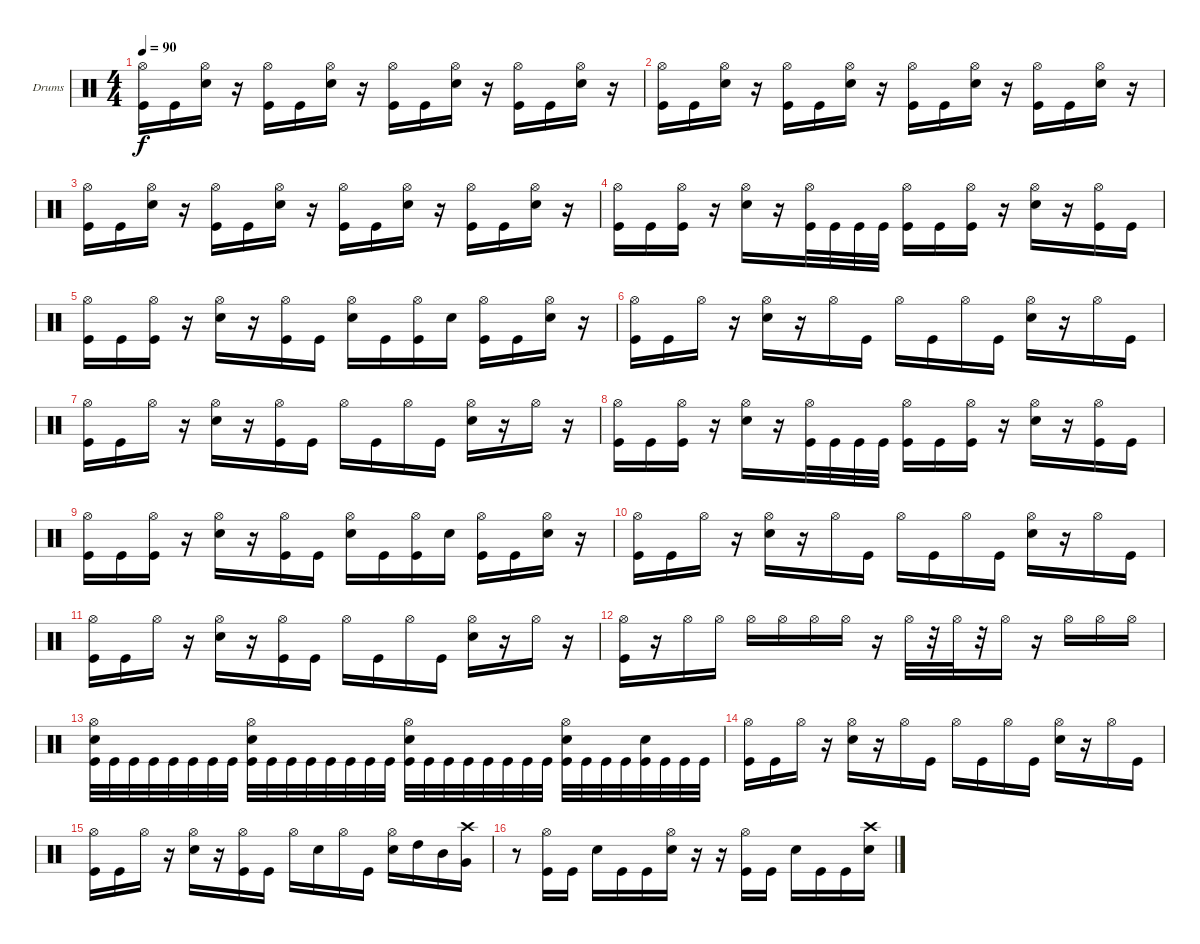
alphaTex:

\bracketExtendMode groupsimilarinstruments
\firstSystemTrackNameOrientation horizontal
\otherSystemsTrackNameOrientation horizontal
\track ("Drumkit" "Drums") {instrument percussion}
\staff {score}
\articulation defaults
\ts (4 4)
\tempo 90
\clef neutral
\ks c
("Hi-Hat (open)" "Kick (hit)").16{dy f} "Kick (hit)".16 ("Hi-Hat (open)" "Snare (hit) 2").16 r.16 ("Hi-Hat (open)" "Kick (hit)").16 "Kick (hit)".16 ("Hi-Hat (open)" "Snare (hit) 2").16 r.16 ("Hi-Hat (open)" "Kick (hit)").16 "Kick (hit)".16 ("Hi-Hat (open)" "Snare (hit) 2").16 r.16 ("Hi-Hat (open)" "Kick (hit)").16 "Kick (hit)".16 ("Hi-Hat (open)" "Snare (hit) 2").16 r.16 |
("Hi-Hat (open)" "Kick (hit)").16 "Kick (hit)".16 ("Hi-Hat (open)" "Snare (hit) 2").16 r.16 ("Hi-Hat (open)" "Kick (hit)").16 "Kick (hit)".16 ("Hi-Hat (open)" "Snare (hit) 2").16 r.16 ("Hi-Hat (open)" "Kick (hit)").16 "Kick (hit)".16 ("Hi-Hat (open)" "Snare (hit) 2").16 r.16 ("Hi-Hat (open)" "Kick (hit)").16 "Kick (hit)".16 ("Hi-Hat (open)" "Snare (hit) 2").16 r.16 |
("Hi-Hat (open)" "Kick (hit)").16 "Kick (hit)".16 ("Hi-Hat (open)" "Snare (hit) 2").16 r.16 ("Hi-Hat (open)" "Kick (hit)").16 "Kick (hit)".16 ("Hi-Hat (open)" "Snare (hit) 2").16 r.16 ("Hi-Hat (open)" "Kick (hit)").16 "Kick (hit)".16 ("Hi-Hat (open)" "Snare (hit) 2").16 r.16 ("Hi-Hat (open)" "Kick (hit)").16 "Kick (hit)".16 ("Hi-Hat (open)" "Snare (hit) 2").16 r.16 |
("Hi-Hat (open)" "Kick (hit)").16 "Kick (hit)".16 ("Hi-Hat (open)" "Kick (hit)").16 r.16 ("Hi-Hat (open)" "Snare (hit) 2").16 r.16 ("Hi-Hat (open)" "Kick (hit)").32 "Kick (hit)".32 "Kick (hit)".32 "Kick (hit)".32 ("Hi-Hat (open)" "Kick (hit)").16 "Kick (hit)".16 ("Hi-Hat (open)" "Kick (hit)").16 r.16 ("Hi-Hat (open)" "Snare (hit) 2").16 r.16 ("Hi-Hat (open)" "Kick (hit)").16 "Kick (hit)".16 |
("Hi-Hat (open)" "Kick (hit)").16 "Kick (hit)".16 ("Hi-Hat (open)" "Kick (hit)").16 r.16 ("Hi-Hat (open)" "Snare (hit) 2").16 r.16 ("Hi-Hat (open)" "Kick (hit)").16 "Kick (hit)".16 ("Hi-Hat (open)" "Snare (hit) 2").16 "Kick (hit)".16 ("Hi-Hat (open)" "Kick (hit)").16 "Snare (hit) 2".16 ("Hi-Hat (open)" "Kick (hit)").16 "Kick (hit)".16 ("Hi-Hat (open)" "Snare (hit) 2").16 r.16 |
("Hi-Hat (open)" "Kick (hit)").16 "Kick (hit)".16 "Hi-Hat (open)".16 r.16 ("Hi-Hat (open)" "Snare (hit) 2").16 r.16 "Hi-Hat (open)".16 "Kick (hit)".16 "Hi-Hat (open)".16 "Kick (hit)".16 "Hi-Hat (open)".16 "Kick (hit)".16 ("Hi-Hat (open)" "Snare (hit) 2").16 r.16 "Hi-Hat (open)".16 "Kick (hit)".16 |
("Hi-Hat (open)" "Kick (hit)").16 "Kick (hit)".16 "Hi-Hat (open)".16 r.16 ("Hi-Hat (open)" "Snare (hit) 2").16 r.16 ("Hi-Hat (open)" "Kick (hit)").16 "Kick (hit)".16 "Hi-Hat (open)".16 "Kick (hit)".16 "Hi-Hat (open)".16 "Kick (hit)".16 ("Hi-Hat (open)" "Snare (hit) 2").16 r.16 "Hi-Hat (open)".16 r.16 |
("Hi-Hat (open)" "Kick (hit)").16 "Kick (hit)".16 ("Hi-Hat (open)" "Kick (hit)").16 r.16 ("Hi-Hat (open)" "Snare (hit) 2").16 r.16 ("Hi-Hat (open)" "Kick (hit)").32 "Kick (hit)".32 "Kick (hit)".32 "Kick (hit)".32 ("Hi-Hat (open)" "Kick (hit)").16 "Kick (hit)".16 ("Hi-Hat (open)" "Kick (hit)").16 r.16 ("Hi-Hat (open)" "Snare (hit) 2").16 r.16 ("Hi-Hat (open)" "Kick (hit)").16 "Kick (hit)".16 |
("Hi-Hat (open)" "Kick (hit)").16 "Kick (hit)".16 ("Hi-Hat (open)" "Kick (hit)").16 r.16 ("Hi-Hat (open)" "Snare (hit) 2").16 r.16 ("Hi-Hat (open)" "Kick (hit)").16 "Kick (hit)".16 ("Hi-Hat (open)" "Snare (hit) 2").16 "Kick (hit)".16 ("Hi-Hat (open)" "Kick (hit)").16 "Snare (hit) 2".16 ("Hi-Hat (open)" "Kick (hit)").16 "Kick (hit)".16 ("Hi-Hat (open)" "Snare (hit) 2").16 r.16 |
("Hi-Hat (open)" "Kick (hit)").16 "Kick (hit)".16 "Hi-Hat (open)".16 r.16 ("Hi-Hat (open)" "Snare (hit) 2").16 r.16 "Hi-Hat (open)".16 "Kick (hit)".16 "Hi-Hat (open)".16 "Kick (hit)".16 "Hi-Hat (open)".16 "Kick (hit)".16 ("Hi-Hat (open)" "Snare (hit) 2").16 r.16 "Hi-Hat (open)".16 "Kick (hit)".16 |
("Hi-Hat (open)" "Kick (hit)").16 "Kick (hit)".16 "Hi-Hat (open)".16 r.16 ("Hi-Hat (open)" "Snare (hit) 2").16 r.16 ("Hi-Hat (open)" "Kick (hit)").16 "Kick (hit)".16 "Hi-Hat (open)".16 "Kick (hit)".16 "Hi-Hat (open)".16 "Kick (hit)".16 ("Hi-Hat (open)" "Snare (hit) 2").16 r.16 "Hi-Hat (open)".16 r.16 |
("Hi-Hat (open)" "Kick (hit)").16 r.16 "Hi-Hat (open)".16 "Hi-Hat (open)".16 "Hi-Hat (open)".16 "Hi-Hat (open)".16 "Hi-Hat (open)".16 "Hi-Hat (open)".16 r.16 "Hi-Hat (open)".32 r.32 "Hi-Hat (open)".32 r.32 "Hi-Hat (open)".16 r.16 "Hi-Hat (open)".16 "Hi-Hat (open)".16 "Hi-Hat (open)".16 |
("Hi-Hat (open)" "Snare (hit) 2" "Kick (hit)").32 "Kick (hit)".32 "Kick (hit)".32 "Kick (hit)".32 "Kick (hit)".32 "Kick (hit)".32 "Kick (hit)".32 "Kick (hit)".32 ("Hi-Hat (open)" "Snare (hit) 2" "Kick (hit)").32 "Kick (hit)".32 "Kick (hit)".32 "Kick (hit)".32 "Kick (hit)".32 "Kick (hit)".32 "Kick (hit)".32 "Kick (hit)".32 ("Hi-Hat (open)" "Snare (hit) 2" "Kick (hit)").32 "Kick (hit)".32 "Kick (hit)".32 "Kick (hit)".32 "Kick (hit)".32 "Kick (hit)".32 "Kick (hit)".32 "Kick (hit)".32 ("Hi-Hat (open)" "Snare (hit) 2" "Kick (hit)").32 "Kick (hit)".32 "Kick (hit)".32 "Kick (hit)".32 ("Snare (hit) 2" "Kick (hit)").32 "Kick (hit)".32 "Kick (hit)".32 "Kick (hit)".32 |
("Hi-Hat (open)" "Kick (hit)").16 "Kick (hit)".16 "Hi-Hat (open)".16 r.16 ("Hi-Hat (open)" "Snare (hit) 2").16 r.16 "Hi-Hat (open)".16 "Kick (hit)".16 "Hi-Hat (open)".16 "Kick (hit)".16 "Hi-Hat (open)".16 "Kick (hit)".16 ("Hi-Hat (open)" "Snare (hit) 2").16 r.16 "Hi-Hat (open)".16 "Kick (hit)".16 |
("Hi-Hat (open)" "Kick (hit)").16 "Kick (hit)".16 "Hi-Hat (open)".16 r.16 ("Hi-Hat (open)" "Snare (hit) 2").16 r.16 ("Hi-Hat (open)" "Kick (hit)").16 "Kick (hit)".16 "Hi-Hat (open)".16 "Snare (hit) 2".16 "Hi-Hat (open)".16 "Kick (hit)".16 ("Hi-Hat (open)" "Snare (hit) 2").16 "High Tom (hit)".16 "Mid Tom (hit)".16 ("Crash high (hit)" "Very Low Tom (hit)").16 |
r.8 ("Hi-Hat (open)" "Kick (hit)").16 "Kick (hit)".16 "Snare (hit) 2".16 "Kick (hit)".16 "Kick (hit)".16 ("Hi-Hat (open)" "Snare (hit) 2").16 r.16 r.16 ("Hi-Hat (open)" "Kick (hit)").16 "Kick (hit)".16 "Snare (hit) 2".16 "Kick (hit)".16 "Kick (hit)".16 ("Crash high (hit)" "Snare (hit) 2").16
